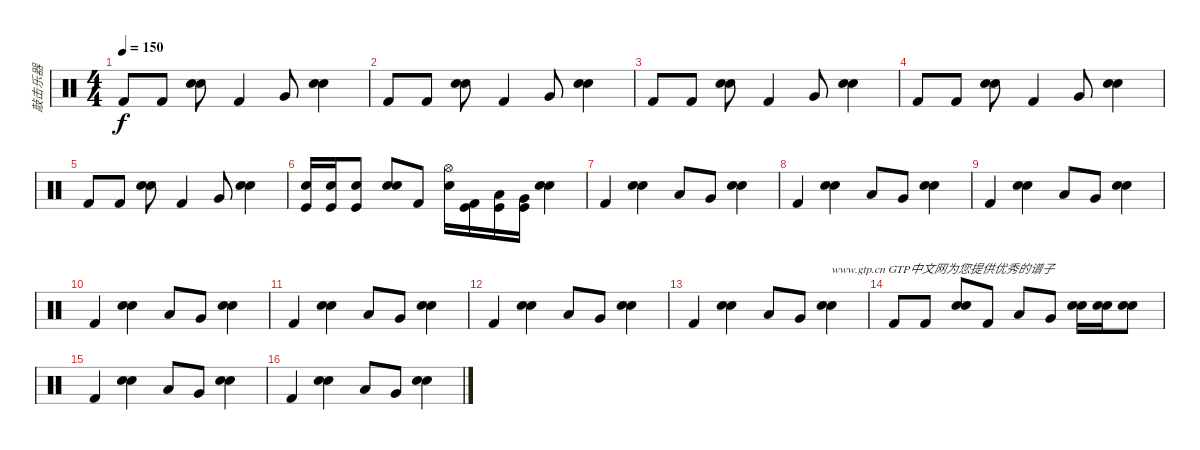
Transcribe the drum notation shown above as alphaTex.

\track ("敲击乐器" "敲击乐器") {instrument percussion}
\staff {score}
\articulation defaults
\ts (4 4)
\tempo 150
\clef neutral
\ks c "Kick (hit) 2".8{dy f} "Kick (hit) 2".8
("Electric Snare (hit)" "Snare (hit) 2").8 "Kick (hit) 2".4 "Very Low Tom (hit)".8 ("Electric Snare (hit)" "Snare (hit) 2").4 |
"Kick (hit) 2".8 "Kick (hit) 2".8 ("Electric Snare (hit)" "Snare (hit) 2").8 "Kick (hit) 2".4 "Very Low Tom (hit)".8 ("Electric Snare (hit)" "Snare (hit) 2").4 |
"Kick (hit) 2".8 "Kick (hit) 2".8 ("Electric Snare (hit)" "Snare (hit) 2").8 "Kick (hit) 2".4 "Very Low Tom (hit)".8 ("Electric Snare (hit)" "Snare (hit) 2").4 |
"Kick (hit) 2".8 "Kick (hit) 2".8 ("Electric Snare (hit)" "Snare (hit) 2").8 "Kick (hit) 2".4 "Very Low Tom (hit)".8 ("Electric Snare (hit)" "Snare (hit) 2").4 |
"Kick (hit) 2".8 "Kick (hit) 2".8 ("Electric Snare (hit)" "Snare (hit) 2").8 "Kick (hit) 2".4 "Very Low Tom (hit)".8 ("Electric Snare (hit)" "Snare (hit) 2").4 |
("Snare (hit) 2" "Kick (hit)").16 ("Snare (hit) 2" "Kick (hit)").16 ("Snare (hit) 2" "Kick (hit)").8 ("Electric Snare (hit)" "Snare (hit) 2").8 "Kick (hit) 2".8 ("Hi-Hat (open)" "Snare (hit) 2").16 ("Kick (hit) 2" "Kick (hit)").16 ("Low Tom (hit)" "Kick (hit)").16 ("Very Low Tom (hit)" "Kick (hit)").16 ("Electric Snare (hit)" "Snare (hit) 2").4 |
"Kick (hit) 2".4 ("Electric Snare (hit)" "Snare (hit) 2").4 "Low Tom (hit)".8 "Very Low Tom (hit)".8 ("Electric Snare (hit)" "Snare (hit) 2").4 |
"Kick (hit) 2".4 ("Electric Snare (hit)" "Snare (hit) 2").4 "Low Tom (hit)".8 "Very Low Tom (hit)".8 ("Electric Snare (hit)" "Snare (hit) 2").4 |
"Kick (hit) 2".4 ("Electric Snare (hit)" "Snare (hit) 2").4 "Low Tom (hit)".8 "Very Low Tom (hit)".8 ("Electric Snare (hit)" "Snare (hit) 2").4 |
"Kick (hit) 2".4 ("Electric Snare (hit)" "Snare (hit) 2").4 "Low Tom (hit)".8 "Very Low Tom (hit)".8 ("Electric Snare (hit)" "Snare (hit) 2").4 |
"Kick (hit) 2".4 ("Electric Snare (hit)" "Snare (hit) 2").4 "Low Tom (hit)".8 "Very Low Tom (hit)".8 ("Electric Snare (hit)" "Snare (hit) 2").4 |
"Kick (hit) 2".4 ("Electric Snare (hit)" "Snare (hit) 2").4 "Low Tom (hit)".8 "Very Low Tom (hit)".8 ("Electric Snare (hit)" "Snare (hit) 2").4 |
"Kick (hit) 2".4 ("Electric Snare (hit)" "Snare (hit) 2").4 "Low Tom (hit)".8 "Very Low Tom (hit)".8 ("Electric Snare (hit)" "Snare (hit) 2").4{txt "www.gtp.cn GTP中文网为您提供优秀的谱子"} |
"Kick (hit) 2".8 "Kick (hit) 2".8 ("Electric Snare (hit)" "Snare (hit) 2").8 "Kick (hit) 2".8 "Low Tom (hit)".8 "Very Low Tom (hit)".8 ("Electric Snare (hit)" "Snare (hit) 2").16 ("Electric Snare (hit)" "Snare (hit) 2").16 ("Electric Snare (hit)" "Snare (hit) 2").8 |
"Kick (hit) 2".4 ("Electric Snare (hit)" "Snare (hit) 2").4 "Low Tom (hit)".8 "Very Low Tom (hit)".8 ("Electric Snare (hit)" "Snare (hit) 2").4 |
"Kick (hit) 2".4 ("Electric Snare (hit)" "Snare (hit) 2").4 "Low Tom (hit)".8 "Very Low Tom (hit)".8 ("Electric Snare (hit)" "Snare (hit) 2").4
